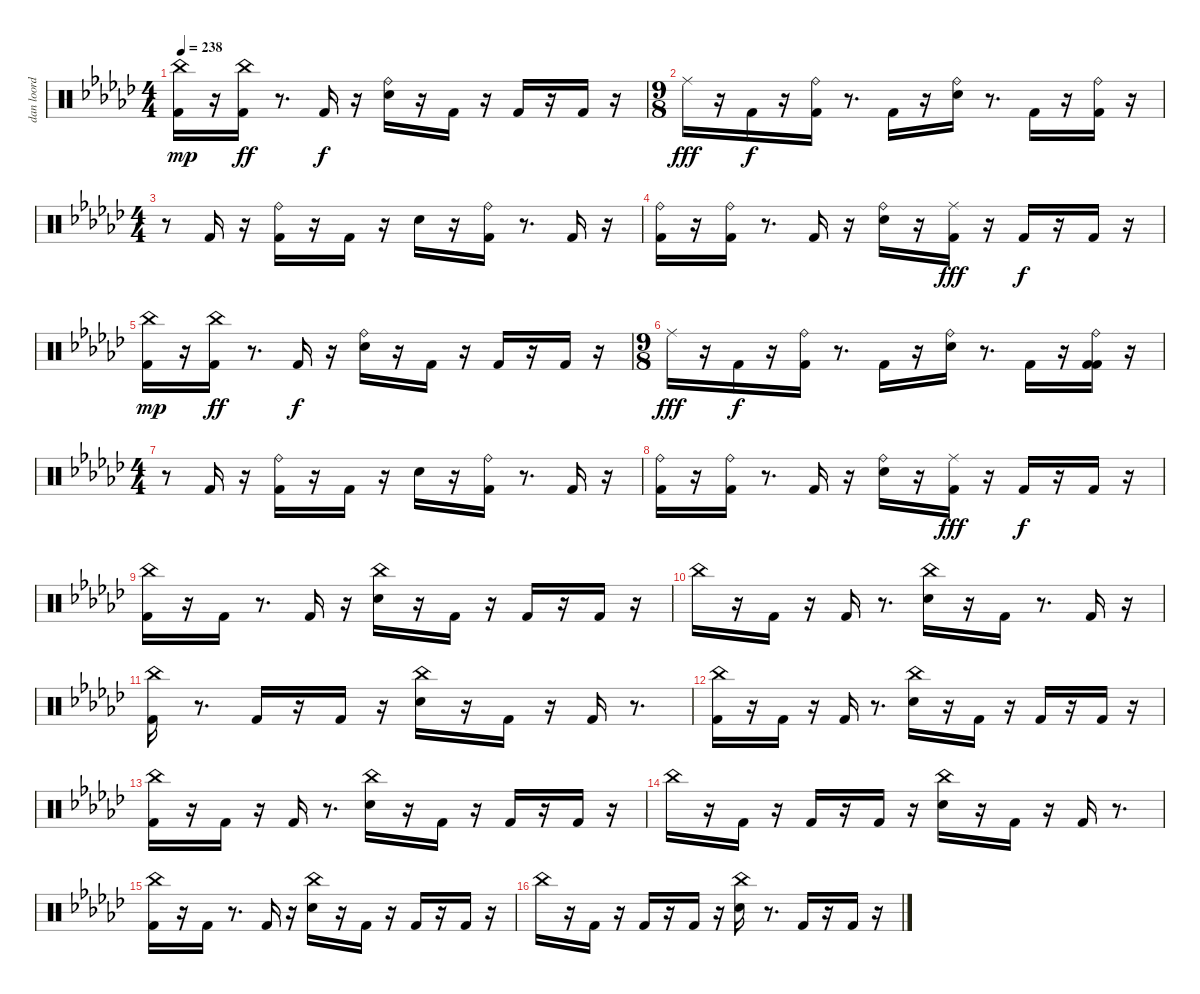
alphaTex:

\track ("dan loord foord" "dan loord ") {instrument percussion}
\staff {score}
\articulation defaults
\ts (4 4)
\tempo 238
\clef neutral
\ks gb
("Kick (hit) 2" "China (hit)").16{dy mp} r.16 ("Kick (hit) 2" "China (hit)").16{dy ff} r.8{d} "Kick (hit) 2".16{dy f} r.16 ("Snare (hit) 2" "Ride (bell)").16 r.16 "Kick (hit) 2".16 r.16 "Kick (hit) 2".16 r.16 "Kick (hit) 2".16 r.16 |
\ts (9 8)
"Ride (middle)".16{dy fff} r.16 "Kick (hit) 2".16{dy f} r.16 ("Kick (hit) 2" "Ride (bell)").16 r.8{d} "Kick (hit) 2".16 r.16 ("Snare (hit) 2" "Ride (bell)").16 r.8{d} "Kick (hit) 2".16 r.16 ("Kick (hit) 2" "Ride (bell)").16 r.16 |
\ts (4 4)
r.8 "Kick (hit) 2".16 r.16 ("Kick (hit) 2" "Ride (bell)").16 r.16 "Kick (hit) 2".16 r.16 "Snare (hit) 2".16 r.16 ("Kick (hit) 2" "Ride (bell)").16 r.8{d} "Kick (hit) 2".16 r.16 |
("Kick (hit) 2" "Ride (bell)").16 r.16 ("Kick (hit) 2" "Ride (bell)").16 r.8{d} "Kick (hit) 2".16 r.16 ("Snare (hit) 2" "Ride (bell)").16 r.16 ("Kick (hit) 2" "Ride (middle)").16{dy fff} r.16 "Kick (hit) 2".16{dy f} r.16 "Kick (hit) 2".16 r.16 |
("Kick (hit) 2" "China (hit)").16{dy mp} r.16 ("Kick (hit) 2" "China (hit)").16{dy ff} r.8{d} "Kick (hit) 2".16{dy f} r.16 ("Snare (hit) 2" "Ride (bell)").16 r.16 "Kick (hit) 2".16 r.16 "Kick (hit) 2".16 r.16 "Kick (hit) 2".16 r.16 |
\ts (9 8)
"Ride (middle)".16{dy fff} r.16 "Kick (hit) 2".16{dy f} r.16 ("Kick (hit) 2" "Ride (bell)").16 r.8{d} "Kick (hit) 2".16 r.16 ("Snare (hit) 2" "Ride (bell)").16 r.8{d} "Kick (hit) 2".16 r.16 ("Kick (hit) 2" "Kick (hit) 2" "Ride (bell)").16 r.16 |
\ts (4 4)
r.8 "Kick (hit) 2".16 r.16 ("Kick (hit) 2" "Ride (bell)").16 r.16 "Kick (hit) 2".16 r.16 "Snare (hit) 2".16 r.16 ("Kick (hit) 2" "Ride (bell)").16 r.8{d} "Kick (hit) 2".16 r.16 |
("Kick (hit) 2" "Ride (bell)").16 r.16 ("Kick (hit) 2" "Ride (bell)").16 r.8{d} "Kick (hit) 2".16 r.16 ("Snare (hit) 2" "Ride (bell)").16 r.16 ("Kick (hit) 2" "Ride (middle)").16{dy fff} r.16 "Kick (hit) 2".16{dy f} r.16 "Kick (hit) 2".16 r.16 |
("Kick (hit) 2" "China (hit)").16 r.16 "Kick (hit) 2".16 r.8{d} "Kick (hit) 2".16 r.16 ("Snare (hit) 2" "China (hit)").16 r.16 "Kick (hit) 2".16 r.16 "Kick (hit) 2".16 r.16 "Kick (hit) 2".16 r.16 |
"China (hit)".16 r.16 "Kick (hit) 2".16 r.16 "Kick (hit) 2".16 r.8{d} ("Snare (hit) 2" "China (hit)").16 r.16 "Kick (hit) 2".16 r.8{d} "Kick (hit) 2".16 r.16 |
("Kick (hit) 2" "China (hit)").16 r.8{d} "Kick (hit) 2".16 r.16 "Kick (hit) 2".16 r.16 ("Snare (hit) 2" "China (hit)").16 r.16 "Kick (hit) 2".16 r.16 "Kick (hit) 2".16 r.8{d} |
("Kick (hit) 2" "China (hit)").16 r.16 "Kick (hit) 2".16 r.16 "Kick (hit) 2".16 r.8{d} ("Snare (hit) 2" "China (hit)").16 r.16 "Kick (hit) 2".16 r.16 "Kick (hit) 2".16 r.16 "Kick (hit) 2".16 r.16 |
("Kick (hit) 2" "China (hit)").16 r.16 "Kick (hit) 2".16 r.16 "Kick (hit) 2".16 r.8{d} ("Snare (hit) 2" "China (hit)").16 r.16 "Kick (hit) 2".16 r.16 "Kick (hit) 2".16 r.16 "Kick (hit) 2".16 r.16 |
"China (hit)".16 r.16 "Kick (hit) 2".16 r.16 "Kick (hit) 2".16 r.16 "Kick (hit) 2".16 r.16 ("Snare (hit) 2" "China (hit)").16 r.16 "Kick (hit) 2".16 r.16 "Kick (hit) 2".16 r.8{d} |
("Kick (hit) 2" "China (hit)").16 r.16 "Kick (hit) 2".16 r.8{d} "Kick (hit) 2".16 r.16 ("Snare (hit) 2" "China (hit)").16 r.16 "Kick (hit) 2".16 r.16 "Kick (hit) 2".16 r.16 "Kick (hit) 2".16 r.16 |
"China (hit)".16 r.16 "Kick (hit) 2".16 r.16 "Kick (hit) 2".16 r.16 "Kick (hit) 2".16 r.16 ("Snare (hit) 2" "China (hit)").16 r.8{d} "Kick (hit) 2".16 r.16 "Kick (hit) 2".16 r.16
